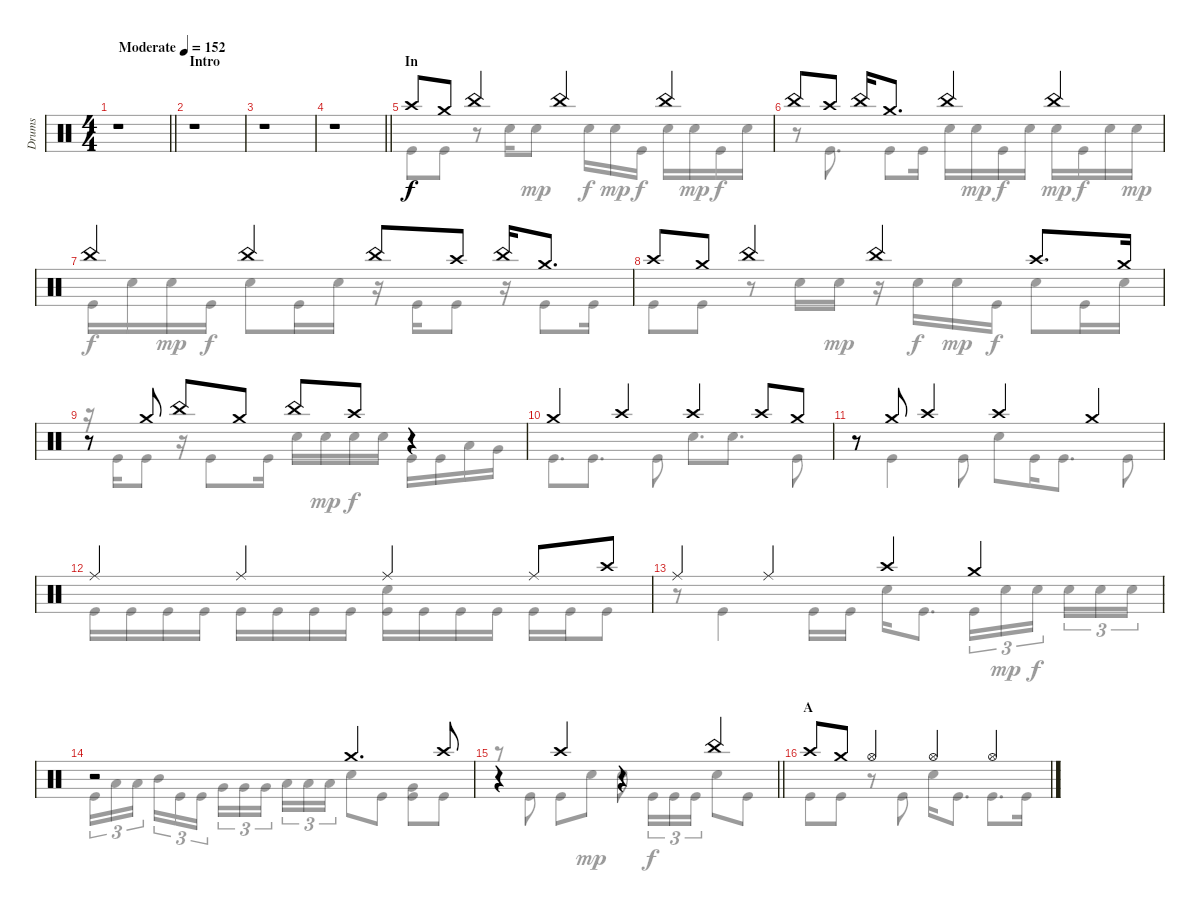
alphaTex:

\track ("Drums" "Drums") {instrument percussion}
\staff {score}
\articulation defaults
\voice
\ts (4 4)
\tempo (152 "Moderate")
\clef neutral
\barLineRight lightlight
\ks c
r.1{dy f} |
\section ("" "Intro")
r.1 |
r.1 |
\barLineRight lightlight
r.1 |
\section ("" "In")
"Crash high (hit)".8 "Crash medium (hit)".8 "China (hit)".4 "China (hit)".4 "China (hit)".4 |
"China (hit)".8 "Crash high (hit)".8 "China (hit)".16 "Crash medium (hit)".8{d} "China (hit)".4 "China (hit)".4 |
"China (hit)".4 "China (hit)".4 "China (hit)".8 "Crash high (hit)".8 "China (hit)".16 "Crash medium (hit)".8{d} |
"Crash high (hit)".8 "Crash medium (hit)".8 "China (hit)".4 "China (hit)".4 "Crash high (hit)".8{d} "Crash medium (hit)".16 |
r.8 "Crash medium (hit)".8 "China (hit)".8 "Crash medium (hit)".8 "China (hit)".8 "Crash high (hit)".8 r.4 |
"Crash medium (hit)".4 "Crash high (hit)".4 "Crash high (hit)".4 "Crash high (hit)".8 "Crash medium (hit)".8 |
r.8 "Crash medium (hit)".8 "Crash high (hit)".4 "Crash high (hit)".4 "Crash medium (hit)".4 |
"Ride (middle)".4 "Ride (middle)".4 "Ride (middle)".4 "Ride (middle)".8 "Crash high (hit)".8 |
"Ride (middle)".4 "Ride (middle)".4 "Crash high (hit)".4 "Crash medium (hit)".4 |
r.2 "Crash medium (hit)".4{d} "Crash high (hit)".8 |
\barLineRight lightlight
r.4 "Crash high (hit)".4 r.4 "China (hit)".4 |
\section ("" "A")
"Crash high (hit)".8 "Crash medium (hit)".8 "Hi-Hat (open)".4 "Hi-Hat (open)".4 "Hi-Hat (open)".4
\voice
\clef neutral
\ottava regular
\simile none
\barLineRight lightlight
\ks c
|
|
|
\barLineRight lightlight
|
"Kick (hit)".8 "Kick (hit)".8 r.8 "Snare (hit) 2".16 "Snare (hit) 2".8{dy mp} "Snare (hit) 2".16{dy f} "Snare (hit) 2".16{dy mp} "Kick (hit)".16{dy f} "Snare (hit) 2".16 "Snare (hit) 2".16{dy mp} "Kick (hit)".16{dy f} "Snare (hit) 2".16 |
r.8 "Kick (hit)".8{d} "Kick (hit)".8 "Kick (hit)".16 "Snare (hit) 2".16 "Snare (hit) 2".16{dy mp} "Kick (hit)".16{dy f} "Snare (hit) 2".16 "Snare (hit) 2".16{dy mp} "Kick (hit)".16{dy f} "Snare (hit) 2".16 "Snare (hit) 2".16{dy mp} |
"Kick (hit)".16{dy f} "Snare (hit) 2".16 "Snare (hit) 2".16{dy mp} "Kick (hit)".16{dy f} "Snare (hit) 2".8 "Kick (hit)".16 "Snare (hit) 2".16 r.16 "Kick (hit)".16 "Kick (hit)".8 r.16 "Kick (hit)".8 "Kick (hit)".16 |
"Kick (hit)".8 "Kick (hit)".8 r.8 "Snare (hit) 2".16 "Snare (hit) 2".16{dy mp} r.16 "Snare (hit) 2".16{dy f} "Snare (hit) 2".16{dy mp} "Kick (hit)".16{dy f} "Snare (hit) 2".8 "Kick (hit)".16 "Snare (hit) 2".16 |
r.16 "Kick (hit)".16 "Kick (hit)".8 r.16 "Kick (hit)".8 "Kick (hit)".16 "Snare (hit) 2".16 "Snare (hit) 2".16{dy mp} "Snare (hit) 2".16{dy f} "Snare (hit) 2".16 "Kick (hit)".16 "Kick (hit)".16 "Low Tom (hit)".16 "Very Low Tom (hit)".16 |
"Kick (hit)".8{d} "Kick (hit)".8{d} "Kick (hit)".8 "Snare (hit) 2".8{d} "Snare (hit) 2".8{d} "Kick (hit)".8 |
r.8 "Kick (hit)".4 "Kick (hit)".8 "Snare (hit) 2".8 "Kick (hit)".16 "Kick (hit)".8{d} "Kick (hit)".8 |
"Kick (hit)".16 "Kick (hit)".16 "Kick (hit)".16 "Kick (hit)".16 "Kick (hit)".16 "Kick (hit)".16 "Kick (hit)".16 "Kick (hit)".16 ("Snare (hit) 2" "Kick (hit)").16 "Kick (hit)".16 "Kick (hit)".16 "Kick (hit)".16 "Kick (hit)".16 "Kick (hit)".16 "Kick (hit)".8 |
r.8 "Kick (hit)".4 "Kick (hit)".16 "Kick (hit)".16 "Snare (hit) 2".16 "Kick (hit)".8{d} "Kick (hit)".16{tu (3 2)} "Snare (hit) 2".16{tu (3 2) dy mp} "Snare (hit) 2".16{tu (3 2) dy f beam splitsecondary} "Snare (hit) 2".16{tu (3 2)} "Snare (hit) 2".16{tu (3 2)} "Snare (hit) 2".16{tu (3 2)} |
"Kick (hit)".16{tu (3 2)} "Low Tom (hit)".16{tu (3 2)} "Low Tom (hit)".16{tu (3 2) beam splitsecondary} "Mid Tom (hit)".16{tu (3 2)} "Kick (hit)".16{tu (3 2)} "Kick (hit)".16{tu (3 2)} "Very Low Tom (hit)".16{tu (3 2)} "Very Low Tom (hit)".16{tu (3 2)} "Very Low Tom (hit)".16{tu (3 2) beam splitsecondary} "Low Tom (hit)".16{tu (3 2)} "Low Tom (hit)".16{tu (3 2)} "Low Tom (hit)".16{tu (3 2)} "Snare (hit) 2".8 "Kick (hit)".8 ("Very Low Tom (hit)" "Kick (hit)").8 "Kick (hit)".8 |
\barLineRight lightlight
r.8 "Kick (hit)".8 "Kick (hit)".8 "Snare (hit) 2".8{dy mp} "Snare (hit) 2".8 "Kick (hit)".16{tu (3 2) dy f} "Kick (hit)".16{tu (3 2)} "Kick (hit)".16{tu (3 2)} "Snare (hit) 2".8 "Kick (hit)".8 |
"Kick (hit)".8 "Kick (hit)".8 r.8 "Kick (hit)".8 "Snare (hit) 2".16 "Kick (hit)".8{d} "Kick (hit)".8{d} "Kick (hit)".16
